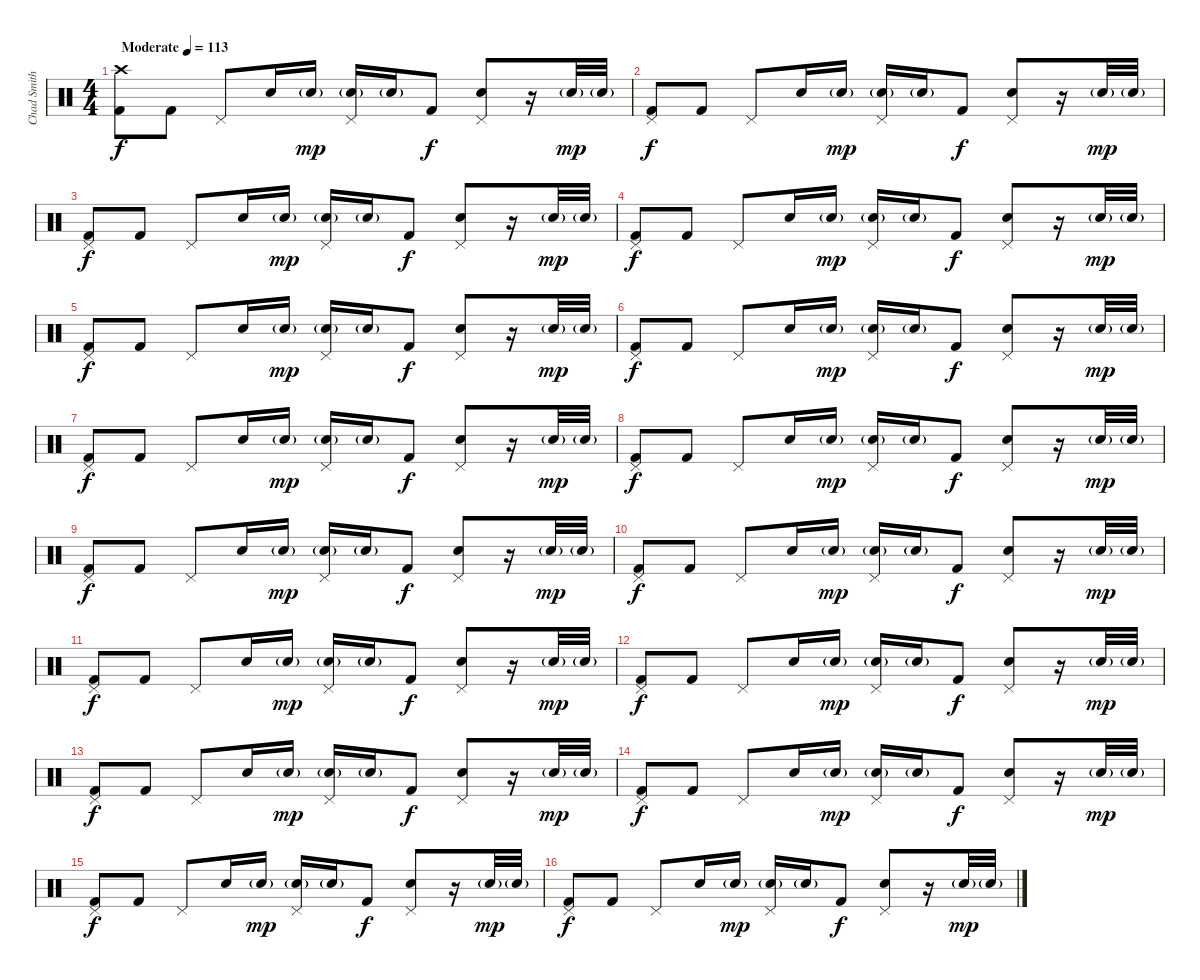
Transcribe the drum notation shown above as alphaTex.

\track ("Chad Smith" "Chad Smith") {instrument percussion}
\staff {score}
\articulation defaults
\ts (4 4)
\tempo (113 "Moderate")
\clef neutral
\ks c
("Crash high (hit)" "Kick (hit) 2").8{dy f} "Kick (hit) 2".8 "Pedal Hi-Hat (hit)".8 "Snare (hit) 2".16 "Snare (hit) 2"{g}.16{dy mp} ("Pedal Hi-Hat (hit)" "Snare (hit) 2"{g}).16 "Snare (hit) 2"{g}.16 "Kick (hit) 2".8{dy f} ("Pedal Hi-Hat (hit)" "Snare (hit) 2").8 r.16 "Snare (hit) 2"{g}.32{dy mp} "Snare (hit) 2"{g}.32 |
("Pedal Hi-Hat (hit)" "Kick (hit) 2").8{dy f} "Kick (hit) 2".8 "Pedal Hi-Hat (hit)".8 "Snare (hit) 2".16 "Snare (hit) 2"{g}.16{dy mp} ("Pedal Hi-Hat (hit)" "Snare (hit) 2"{g}).16 "Snare (hit) 2"{g}.16 "Kick (hit) 2".8{dy f} ("Pedal Hi-Hat (hit)" "Snare (hit) 2").8 r.16 "Snare (hit) 2"{g}.32{dy mp} "Snare (hit) 2"{g}.32 |
("Pedal Hi-Hat (hit)" "Kick (hit) 2").8{dy f} "Kick (hit) 2".8 "Pedal Hi-Hat (hit)".8 "Snare (hit) 2".16 "Snare (hit) 2"{g}.16{dy mp} ("Pedal Hi-Hat (hit)" "Snare (hit) 2"{g}).16 "Snare (hit) 2"{g}.16 "Kick (hit) 2".8{dy f} ("Pedal Hi-Hat (hit)" "Snare (hit) 2").8 r.16 "Snare (hit) 2"{g}.32{dy mp} "Snare (hit) 2"{g}.32 |
("Pedal Hi-Hat (hit)" "Kick (hit) 2").8{dy f} "Kick (hit) 2".8 "Pedal Hi-Hat (hit)".8 "Snare (hit) 2".16 "Snare (hit) 2"{g}.16{dy mp} ("Pedal Hi-Hat (hit)" "Snare (hit) 2"{g}).16 "Snare (hit) 2"{g}.16 "Kick (hit) 2".8{dy f} ("Pedal Hi-Hat (hit)" "Snare (hit) 2").8 r.16 "Snare (hit) 2"{g}.32{dy mp} "Snare (hit) 2"{g}.32 |
("Pedal Hi-Hat (hit)" "Kick (hit) 2").8{dy f} "Kick (hit) 2".8 "Pedal Hi-Hat (hit)".8 "Snare (hit) 2".16 "Snare (hit) 2"{g}.16{dy mp} ("Pedal Hi-Hat (hit)" "Snare (hit) 2"{g}).16 "Snare (hit) 2"{g}.16 "Kick (hit) 2".8{dy f} ("Pedal Hi-Hat (hit)" "Snare (hit) 2").8 r.16 "Snare (hit) 2"{g}.32{dy mp} "Snare (hit) 2"{g}.32 |
("Pedal Hi-Hat (hit)" "Kick (hit) 2").8{dy f} "Kick (hit) 2".8 "Pedal Hi-Hat (hit)".8 "Snare (hit) 2".16 "Snare (hit) 2"{g}.16{dy mp} ("Pedal Hi-Hat (hit)" "Snare (hit) 2"{g}).16 "Snare (hit) 2"{g}.16 "Kick (hit) 2".8{dy f} ("Pedal Hi-Hat (hit)" "Snare (hit) 2").8 r.16 "Snare (hit) 2"{g}.32{dy mp} "Snare (hit) 2"{g}.32 |
("Pedal Hi-Hat (hit)" "Kick (hit) 2").8{dy f} "Kick (hit) 2".8 "Pedal Hi-Hat (hit)".8 "Snare (hit) 2".16 "Snare (hit) 2"{g}.16{dy mp} ("Pedal Hi-Hat (hit)" "Snare (hit) 2"{g}).16 "Snare (hit) 2"{g}.16 "Kick (hit) 2".8{dy f} ("Pedal Hi-Hat (hit)" "Snare (hit) 2").8 r.16 "Snare (hit) 2"{g}.32{dy mp} "Snare (hit) 2"{g}.32 |
("Pedal Hi-Hat (hit)" "Kick (hit) 2").8{dy f} "Kick (hit) 2".8 "Pedal Hi-Hat (hit)".8 "Snare (hit) 2".16 "Snare (hit) 2"{g}.16{dy mp} ("Pedal Hi-Hat (hit)" "Snare (hit) 2"{g}).16 "Snare (hit) 2"{g}.16 "Kick (hit) 2".8{dy f} ("Pedal Hi-Hat (hit)" "Snare (hit) 2").8 r.16 "Snare (hit) 2"{g}.32{dy mp} "Snare (hit) 2"{g}.32 |
("Pedal Hi-Hat (hit)" "Kick (hit) 2").8{dy f} "Kick (hit) 2".8 "Pedal Hi-Hat (hit)".8 "Snare (hit) 2".16 "Snare (hit) 2"{g}.16{dy mp} ("Pedal Hi-Hat (hit)" "Snare (hit) 2"{g}).16 "Snare (hit) 2"{g}.16 "Kick (hit) 2".8{dy f} ("Pedal Hi-Hat (hit)" "Snare (hit) 2").8 r.16 "Snare (hit) 2"{g}.32{dy mp} "Snare (hit) 2"{g}.32 |
("Pedal Hi-Hat (hit)" "Kick (hit) 2").8{dy f} "Kick (hit) 2".8 "Pedal Hi-Hat (hit)".8 "Snare (hit) 2".16 "Snare (hit) 2"{g}.16{dy mp} ("Pedal Hi-Hat (hit)" "Snare (hit) 2"{g}).16 "Snare (hit) 2"{g}.16 "Kick (hit) 2".8{dy f} ("Pedal Hi-Hat (hit)" "Snare (hit) 2").8 r.16 "Snare (hit) 2"{g}.32{dy mp} "Snare (hit) 2"{g}.32 |
("Pedal Hi-Hat (hit)" "Kick (hit) 2").8{dy f} "Kick (hit) 2".8 "Pedal Hi-Hat (hit)".8 "Snare (hit) 2".16 "Snare (hit) 2"{g}.16{dy mp} ("Pedal Hi-Hat (hit)" "Snare (hit) 2"{g}).16 "Snare (hit) 2"{g}.16 "Kick (hit) 2".8{dy f} ("Pedal Hi-Hat (hit)" "Snare (hit) 2").8 r.16 "Snare (hit) 2"{g}.32{dy mp} "Snare (hit) 2"{g}.32 |
("Pedal Hi-Hat (hit)" "Kick (hit) 2").8{dy f} "Kick (hit) 2".8 "Pedal Hi-Hat (hit)".8 "Snare (hit) 2".16 "Snare (hit) 2"{g}.16{dy mp} ("Pedal Hi-Hat (hit)" "Snare (hit) 2"{g}).16 "Snare (hit) 2"{g}.16 "Kick (hit) 2".8{dy f} ("Pedal Hi-Hat (hit)" "Snare (hit) 2").8 r.16 "Snare (hit) 2"{g}.32{dy mp} "Snare (hit) 2"{g}.32 |
("Pedal Hi-Hat (hit)" "Kick (hit) 2").8{dy f} "Kick (hit) 2".8 "Pedal Hi-Hat (hit)".8 "Snare (hit) 2".16 "Snare (hit) 2"{g}.16{dy mp} ("Pedal Hi-Hat (hit)" "Snare (hit) 2"{g}).16 "Snare (hit) 2"{g}.16 "Kick (hit) 2".8{dy f} ("Pedal Hi-Hat (hit)" "Snare (hit) 2").8 r.16 "Snare (hit) 2"{g}.32{dy mp} "Snare (hit) 2"{g}.32 |
("Pedal Hi-Hat (hit)" "Kick (hit) 2").8{dy f} "Kick (hit) 2".8 "Pedal Hi-Hat (hit)".8 "Snare (hit) 2".16 "Snare (hit) 2"{g}.16{dy mp} ("Pedal Hi-Hat (hit)" "Snare (hit) 2"{g}).16 "Snare (hit) 2"{g}.16 "Kick (hit) 2".8{dy f} ("Pedal Hi-Hat (hit)" "Snare (hit) 2").8 r.16 "Snare (hit) 2"{g}.32{dy mp} "Snare (hit) 2"{g}.32 |
("Pedal Hi-Hat (hit)" "Kick (hit) 2").8{dy f} "Kick (hit) 2".8 "Pedal Hi-Hat (hit)".8 "Snare (hit) 2".16 "Snare (hit) 2"{g}.16{dy mp} ("Pedal Hi-Hat (hit)" "Snare (hit) 2"{g}).16 "Snare (hit) 2"{g}.16 "Kick (hit) 2".8{dy f} ("Pedal Hi-Hat (hit)" "Snare (hit) 2").8 r.16 "Snare (hit) 2"{g}.32{dy mp} "Snare (hit) 2"{g}.32 |
("Pedal Hi-Hat (hit)" "Kick (hit) 2").8{dy f} "Kick (hit) 2".8 "Pedal Hi-Hat (hit)".8 "Snare (hit) 2".16 "Snare (hit) 2"{g}.16{dy mp} ("Pedal Hi-Hat (hit)" "Snare (hit) 2"{g}).16 "Snare (hit) 2"{g}.16 "Kick (hit) 2".8{dy f} ("Pedal Hi-Hat (hit)" "Snare (hit) 2").8 r.16 "Snare (hit) 2"{g}.32{dy mp} "Snare (hit) 2"{g}.32
